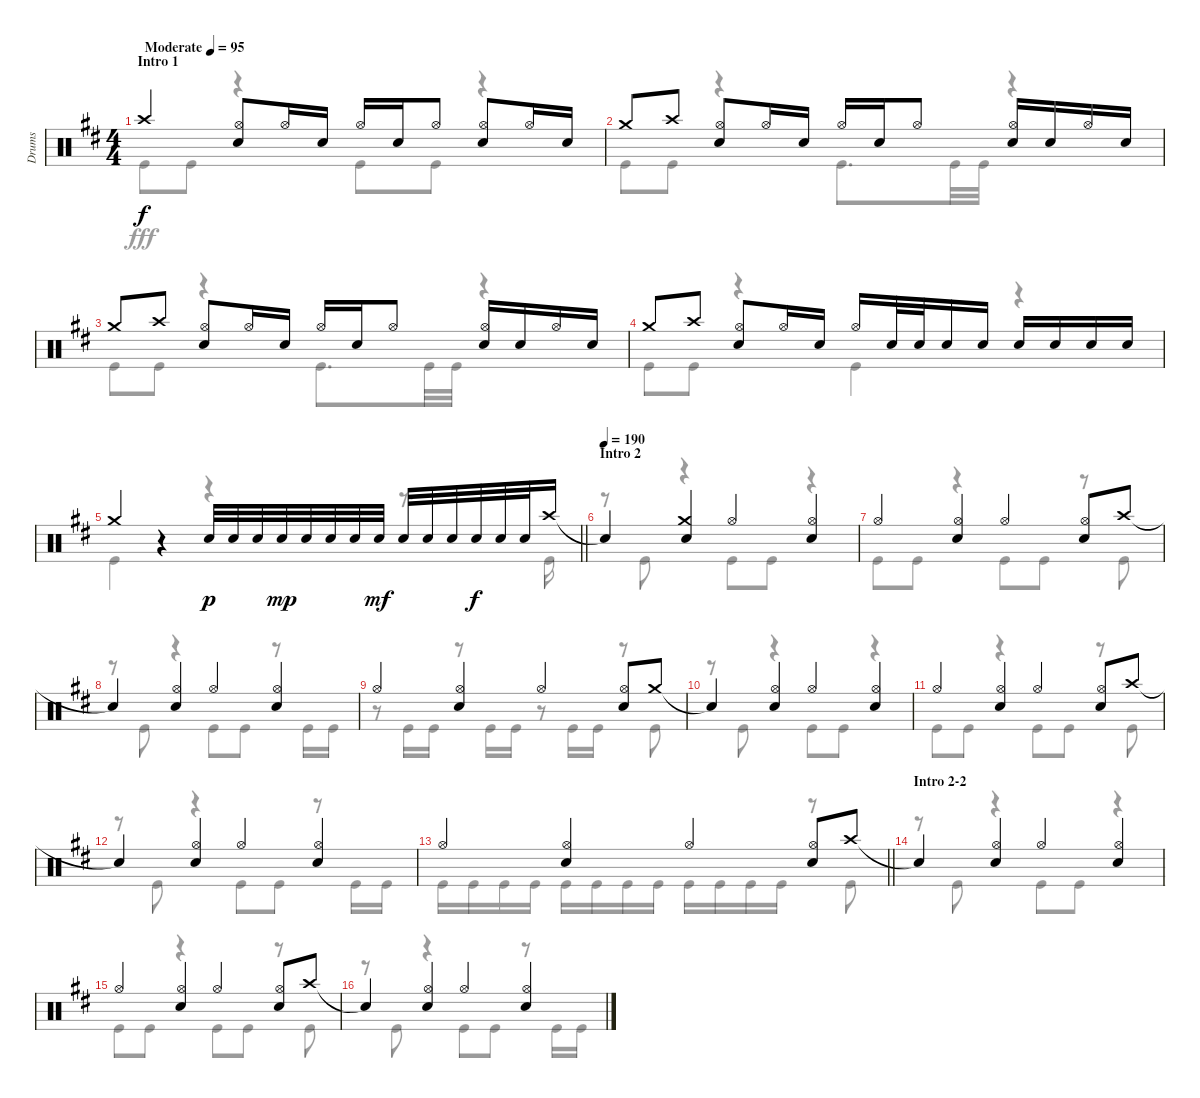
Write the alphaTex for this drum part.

\track ("Drums" "Drums") {instrument percussion}
\staff {score}
\articulation defaults
\voice
\ts (4 4)
\section ("" "Intro 1")
\tempo (95 "Moderate")
\clef neutral
\ks d "Crash high (hit)".4{dy f}
("Hi-Hat (open)" "Snare (hit) 2").8 "Hi-Hat (open)".16 "Snare (hit) 2".16 "Hi-Hat (open)".16 "Snare (hit) 2".16 "Hi-Hat (open)".8 ("Hi-Hat (open)" "Snare (hit) 2").8 "Hi-Hat (open)".16 "Snare (hit) 2".16 |
"Crash medium (hit)".8 "Crash high (hit)".8 ("Hi-Hat (open)" "Snare (hit) 2").8 "Hi-Hat (open)".16 "Snare (hit) 2".16 "Hi-Hat (open)".16 "Snare (hit) 2".16 "Hi-Hat (open)".8 ("Hi-Hat (open)" "Snare (hit) 2").16 "Snare (hit) 2".16 "Hi-Hat (open)".16 "Snare (hit) 2".16 |
"Crash medium (hit)".8 "Crash high (hit)".8 ("Hi-Hat (open)" "Snare (hit) 2").8 "Hi-Hat (open)".16 "Snare (hit) 2".16 "Hi-Hat (open)".16 "Snare (hit) 2".16 "Hi-Hat (open)".8 ("Hi-Hat (open)" "Snare (hit) 2").16 "Snare (hit) 2".16 "Hi-Hat (open)".16 "Snare (hit) 2".16 |
"Crash medium (hit)".8 "Crash high (hit)".8 ("Hi-Hat (open)" "Snare (hit) 2").8 "Hi-Hat (open)".16 "Snare (hit) 2".16 "Hi-Hat (open)".16 "Snare (hit) 2".32 "Snare (hit) 2".32 "Snare (hit) 2".16 "Snare (hit) 2".16 "Snare (hit) 2".16 "Snare (hit) 2".16 "Snare (hit) 2".16 "Snare (hit) 2".16 |
\barLineRight lightlight "Crash medium (hit)".4
r.4 "Snare (hit) 2".32{dy p} "Snare (hit) 2".32 "Snare (hit) 2".32 "Snare (hit) 2".32{dy mp} "Snare (hit) 2".32 "Snare (hit) 2".32 "Snare (hit) 2".32 "Snare (hit) 2".32{dy mf} "Snare (hit) 2".32 "Snare (hit) 2".32 "Snare (hit) 2".32 "Snare (hit) 2".32{dy f} "Snare (hit) 2".32 "Snare (hit) 2".32 "Crash high (hit)".16 |
\section ("" "Intro 2")
\tempo (190)
"Snare (hit)"{t}.4 ("Crash medium (hit)" "Snare (hit) 2").4 "Hi-Hat (open)".4 ("Hi-Hat (open)" "Snare (hit) 2").4 |
"Hi-Hat (open)".4 ("Hi-Hat (open)" "Snare (hit) 2").4 "Hi-Hat (open)".4 ("Hi-Hat (open)" "Snare (hit) 2").8 "Crash high (hit)".8 |
"Snare (hit)"{t}.4 ("Hi-Hat (open)" "Snare (hit) 2").4 "Hi-Hat (open)".4 ("Hi-Hat (open)" "Snare (hit) 2").4 |
"Hi-Hat (open)".4 ("Hi-Hat (open)" "Snare (hit) 2").4 "Hi-Hat (open)".4 ("Hi-Hat (open)" "Snare (hit) 2").8 "Crash medium (hit)".8 |
"Snare (hit)"{t}.4 ("Hi-Hat (open)" "Snare (hit) 2").4 "Hi-Hat (open)".4 ("Hi-Hat (open)" "Snare (hit) 2").4 |
"Hi-Hat (open)".4 ("Hi-Hat (open)" "Snare (hit) 2").4 "Hi-Hat (open)".4 ("Hi-Hat (open)" "Snare (hit) 2").8 "Crash high (hit)".8 |
"Snare (hit)"{t}.4 ("Hi-Hat (open)" "Snare (hit) 2").4 "Hi-Hat (open)".4 ("Hi-Hat (open)" "Snare (hit) 2").4 |
\barLineRight lightlight "Hi-Hat (open)".4
("Hi-Hat (open)" "Snare (hit) 2").4 "Hi-Hat (open)".4 ("Hi-Hat (open)" "Snare (hit) 2").8 "Crash high (hit)".8 |
\section ("" "Intro 2-2")
"Snare (hit)"{t}.4 ("Hi-Hat (open)" "Snare (hit) 2").4 "Hi-Hat (open)".4 ("Hi-Hat (open)" "Snare (hit) 2").4 |
"Hi-Hat (open)".4 ("Hi-Hat (open)" "Snare (hit) 2").4 "Hi-Hat (open)".4 ("Hi-Hat (open)" "Snare (hit) 2").8 "Crash high (hit)".8 |
"Snare (hit)"{t}.4 ("Hi-Hat (open)" "Snare (hit) 2").4 "Hi-Hat (open)".4 ("Hi-Hat (open)" "Snare (hit) 2").4
\voice
\clef neutral
\ottava regular
\simile none
\ks d "Kick (hit)".8{dy fff} "Kick (hit)".8
r.4 "Kick (hit)".8 "Kick (hit)".8 r.4 |
"Kick (hit)".8 "Kick (hit)".8 r.4 "Kick (hit)".8{d} "Kick (hit)".32 "Kick (hit)".32 r.4 |
"Kick (hit)".8 "Kick (hit)".8 r.4 "Kick (hit)".8{d} "Kick (hit)".32 "Kick (hit)".32 r.4 |
"Kick (hit)".8 "Kick (hit)".8 r.4 "Kick (hit)".4 r.4 |
\barLineRight lightlight "Kick (hit)".4
r.4 r.4 r.8{d} "Kick (hit)".16 |
r.8 "Kick (hit)".8 r.4 "Kick (hit)".8 "Kick (hit)".8 r.4 |
"Kick (hit)".8 "Kick (hit)".8 r.4 "Kick (hit)".8 "Kick (hit)".8 r.8 "Kick (hit)".8 |
r.8 "Kick (hit)".8 r.4 "Kick (hit)".8 "Kick (hit)".8 r.8 "Kick (hit)".16 "Kick (hit)".16 |
r.8 "Kick (hit)".16 "Kick (hit)".16 r.8 "Kick (hit)".16 "Kick (hit)".16 r.8 "Kick (hit)".16 "Kick (hit)".16 r.8 "Kick (hit)".8 |
r.8 "Kick (hit)".8 r.4 "Kick (hit)".8 "Kick (hit)".8 r.4 |
"Kick (hit)".8 "Kick (hit)".8 r.4 "Kick (hit)".8 "Kick (hit)".8 r.8 "Kick (hit)".8 |
r.8 "Kick (hit)".8 r.4 "Kick (hit)".8 "Kick (hit)".8 r.8 "Kick (hit)".16 "Kick (hit)".16 |
\barLineRight lightlight "Kick (hit)".16 "Kick (hit)".16 "Kick (hit)".16 "Kick (hit)".16 "Kick (hit)".16 "Kick (hit)".16 "Kick (hit)".16 "Kick (hit)".16 "Kick (hit)".16 "Kick (hit)".16 "Kick (hit)".16 "Kick (hit)".16
r.8 "Kick (hit)".8 |
r.8 "Kick (hit)".8 r.4 "Kick (hit)".8 "Kick (hit)".8 r.4 |
"Kick (hit)".8 "Kick (hit)".8 r.4 "Kick (hit)".8 "Kick (hit)".8 r.8 "Kick (hit)".8 |
r.8 "Kick (hit)".8 r.4 "Kick (hit)".8 "Kick (hit)".8 r.8 "Kick (hit)".16 "Kick (hit)".16
